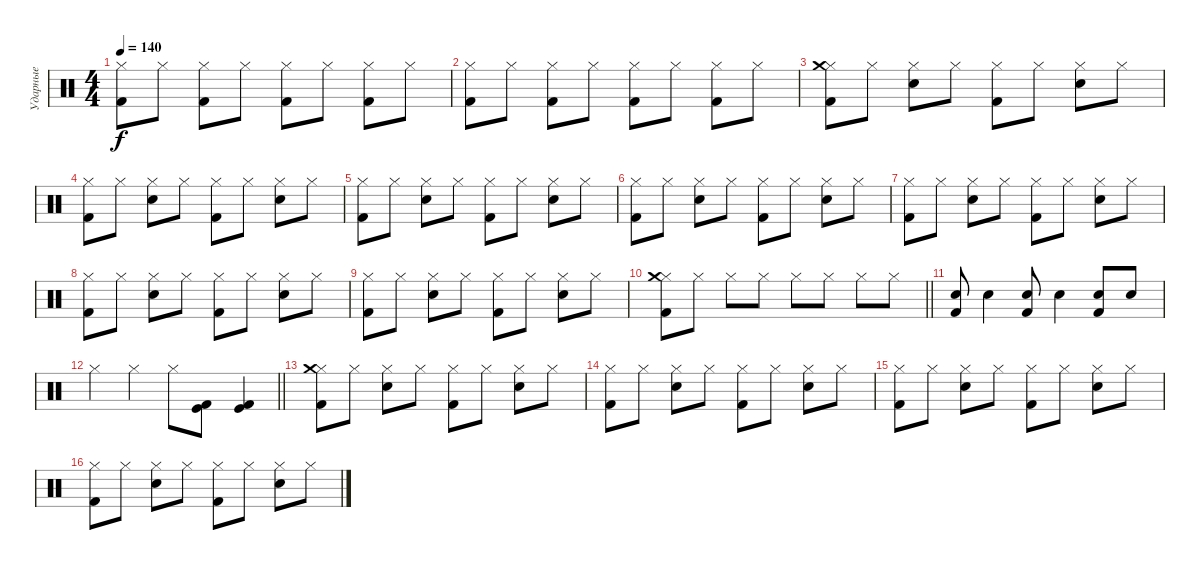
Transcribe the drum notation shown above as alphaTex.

\track ("Ударные" "Ударные") {instrument percussion}
\staff {score}
\articulation defaults
\ts (4 4)
\tempo 140
\clef neutral
\ks c
("Hi-Hat (closed)" "Kick (hit) 2").8{dy f} "Hi-Hat (closed)".8 ("Hi-Hat (closed)" "Kick (hit) 2").8 "Hi-Hat (closed)".8 ("Hi-Hat (closed)" "Kick (hit) 2").8 "Hi-Hat (closed)".8 ("Hi-Hat (closed)" "Kick (hit) 2").8 "Hi-Hat (closed)".8 |
("Hi-Hat (closed)" "Kick (hit) 2").8 "Hi-Hat (closed)".8 ("Hi-Hat (closed)" "Kick (hit) 2").8 "Hi-Hat (closed)".8 ("Hi-Hat (closed)" "Kick (hit) 2").8 "Hi-Hat (closed)".8 ("Hi-Hat (closed)" "Kick (hit) 2").8 "Hi-Hat (closed)".8 |
("Hi-Hat (closed)" "Kick (hit) 2" "Crash medium (hit)").8 "Hi-Hat (closed)".8 ("Hi-Hat (closed)" "Snare (hit) 2").8 "Hi-Hat (closed)".8 ("Hi-Hat (closed)" "Kick (hit) 2").8 "Hi-Hat (closed)".8 ("Hi-Hat (closed)" "Snare (hit) 2").8 "Hi-Hat (closed)".8 |
("Hi-Hat (closed)" "Kick (hit) 2").8 "Hi-Hat (closed)".8 ("Hi-Hat (closed)" "Snare (hit) 2").8 "Hi-Hat (closed)".8 ("Hi-Hat (closed)" "Kick (hit) 2").8 "Hi-Hat (closed)".8 ("Hi-Hat (closed)" "Snare (hit) 2").8 "Hi-Hat (closed)".8 |
("Hi-Hat (closed)" "Kick (hit) 2").8 "Hi-Hat (closed)".8 ("Hi-Hat (closed)" "Snare (hit) 2").8 "Hi-Hat (closed)".8 ("Hi-Hat (closed)" "Kick (hit) 2").8 "Hi-Hat (closed)".8 ("Hi-Hat (closed)" "Snare (hit) 2").8 "Hi-Hat (closed)".8 |
("Hi-Hat (closed)" "Kick (hit) 2").8 "Hi-Hat (closed)".8 ("Hi-Hat (closed)" "Snare (hit) 2").8 "Hi-Hat (closed)".8 ("Hi-Hat (closed)" "Kick (hit) 2").8 "Hi-Hat (closed)".8 ("Hi-Hat (closed)" "Snare (hit) 2").8 "Hi-Hat (closed)".8 |
("Hi-Hat (closed)" "Kick (hit) 2").8 "Hi-Hat (closed)".8 ("Hi-Hat (closed)" "Snare (hit) 2").8 "Hi-Hat (closed)".8 ("Hi-Hat (closed)" "Kick (hit) 2").8 "Hi-Hat (closed)".8 ("Hi-Hat (closed)" "Snare (hit) 2").8 "Hi-Hat (closed)".8 |
("Hi-Hat (closed)" "Kick (hit) 2").8 "Hi-Hat (closed)".8 ("Hi-Hat (closed)" "Snare (hit) 2").8 "Hi-Hat (closed)".8 ("Hi-Hat (closed)" "Kick (hit) 2").8 "Hi-Hat (closed)".8 ("Hi-Hat (closed)" "Snare (hit) 2").8 "Hi-Hat (closed)".8 |
("Hi-Hat (closed)" "Kick (hit) 2").8 "Hi-Hat (closed)".8 ("Hi-Hat (closed)" "Snare (hit) 2").8 "Hi-Hat (closed)".8 ("Hi-Hat (closed)" "Kick (hit) 2").8 "Hi-Hat (closed)".8 ("Hi-Hat (closed)" "Snare (hit) 2").8 "Hi-Hat (closed)".8 |
\barLineRight lightlight
("Hi-Hat (closed)" "Kick (hit) 2" "Crash medium (hit)").8 "Hi-Hat (closed)".8 "Hi-Hat (closed)".8 "Hi-Hat (closed)".8 "Hi-Hat (closed)".8 "Hi-Hat (closed)".8 "Hi-Hat (closed)".8 "Hi-Hat (closed)".8 |
("Kick (hit) 2" "Snare (hit) 2").8 "Snare (hit) 2".4 ("Kick (hit) 2" "Snare (hit) 2").8 "Snare (hit) 2".4 ("Kick (hit) 2" "Snare (hit) 2").8 "Snare (hit) 2".8 |
\barLineRight lightlight "Hi-Hat (closed)".4 "Hi-Hat (closed)".4 "Hi-Hat (closed)".8
("Kick (hit)" "Kick (hit) 2").8 ("Kick (hit) 2" "Kick (hit)").4 |
("Hi-Hat (closed)" "Kick (hit) 2" "Crash medium (hit)").8 "Hi-Hat (closed)".8 ("Hi-Hat (closed)" "Snare (hit) 2").8 "Hi-Hat (closed)".8 ("Hi-Hat (closed)" "Kick (hit) 2").8 "Hi-Hat (closed)".8 ("Hi-Hat (closed)" "Snare (hit) 2").8 "Hi-Hat (closed)".8 |
("Hi-Hat (closed)" "Kick (hit) 2").8 "Hi-Hat (closed)".8 ("Hi-Hat (closed)" "Snare (hit) 2").8 "Hi-Hat (closed)".8 ("Hi-Hat (closed)" "Kick (hit) 2").8 "Hi-Hat (closed)".8 ("Hi-Hat (closed)" "Snare (hit) 2").8 "Hi-Hat (closed)".8 |
("Hi-Hat (closed)" "Kick (hit) 2").8 "Hi-Hat (closed)".8 ("Hi-Hat (closed)" "Snare (hit) 2").8 "Hi-Hat (closed)".8 ("Hi-Hat (closed)" "Kick (hit) 2").8 "Hi-Hat (closed)".8 ("Hi-Hat (closed)" "Snare (hit) 2").8 "Hi-Hat (closed)".8 |
("Hi-Hat (closed)" "Kick (hit) 2").8 "Hi-Hat (closed)".8 ("Hi-Hat (closed)" "Snare (hit) 2").8 "Hi-Hat (closed)".8 ("Hi-Hat (closed)" "Kick (hit) 2").8 "Hi-Hat (closed)".8 ("Hi-Hat (closed)" "Snare (hit) 2").8 "Hi-Hat (closed)".8
